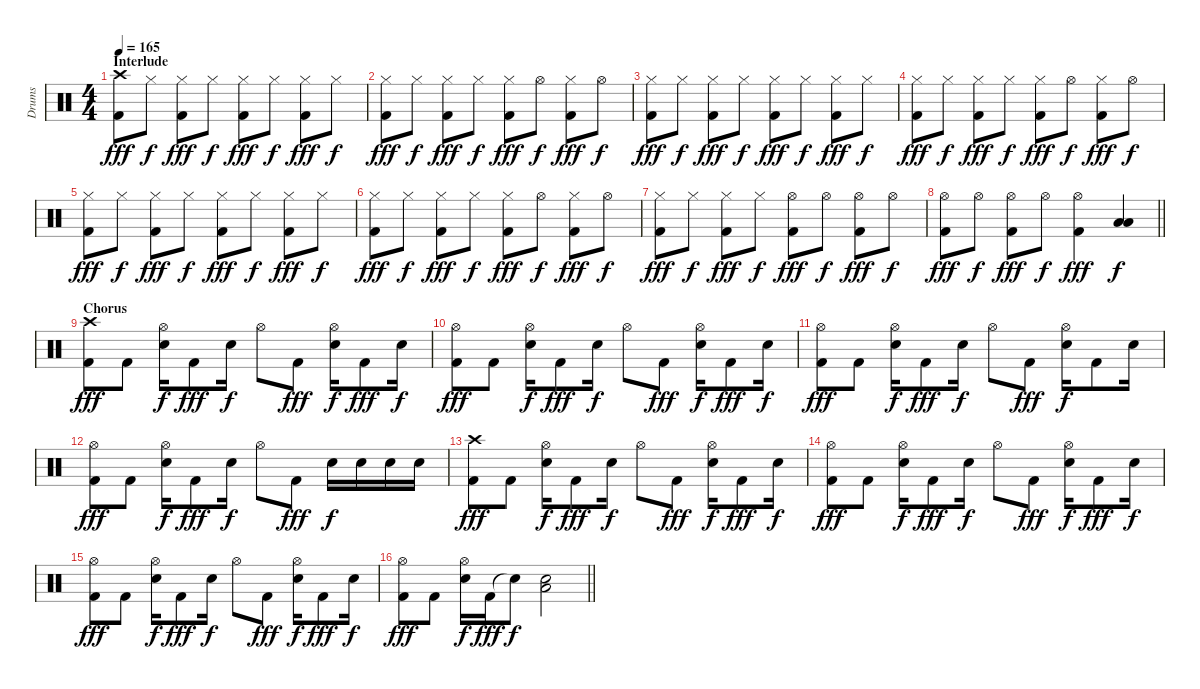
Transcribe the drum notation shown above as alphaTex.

\track ("Drums" "Drums") {instrument percussion}
\staff {score}
\articulation defaults
\ts (4 4)
\section ("" "Interlude")
\tempo 165
\clef neutral
\ks c
("Crash high (hit)" "Kick (hit) 2").8{dy fff} "Hi-Hat (closed)".8{dy f} ("Hi-Hat (closed)" "Kick (hit) 2").8{dy fff} "Hi-Hat (closed)".8{dy f} ("Hi-Hat (closed)" "Kick (hit) 2").8{dy fff} "Hi-Hat (closed)".8{dy f} ("Hi-Hat (closed)" "Kick (hit) 2").8{dy fff} "Hi-Hat (closed)".8{dy f} |
("Hi-Hat (closed)" "Kick (hit) 2").8{dy fff} "Hi-Hat (closed)".8{dy f} ("Hi-Hat (closed)" "Kick (hit) 2").8{dy fff} "Hi-Hat (closed)".8{dy f} ("Hi-Hat (closed)" "Kick (hit) 2").8{dy fff} "Hi-Hat (open)".8{dy f} ("Hi-Hat (closed)" "Kick (hit) 2").8{dy fff} "Hi-Hat (open)".8{dy f} |
("Hi-Hat (closed)" "Kick (hit) 2").8{dy fff} "Hi-Hat (closed)".8{dy f} ("Hi-Hat (closed)" "Kick (hit) 2").8{dy fff} "Hi-Hat (closed)".8{dy f} ("Hi-Hat (closed)" "Kick (hit) 2").8{dy fff} "Hi-Hat (closed)".8{dy f} ("Hi-Hat (closed)" "Kick (hit) 2").8{dy fff} "Hi-Hat (closed)".8{dy f} |
("Hi-Hat (closed)" "Kick (hit) 2").8{dy fff} "Hi-Hat (closed)".8{dy f} ("Hi-Hat (closed)" "Kick (hit) 2").8{dy fff} "Hi-Hat (closed)".8{dy f} ("Hi-Hat (closed)" "Kick (hit) 2").8{dy fff} "Hi-Hat (open)".8{dy f} ("Hi-Hat (closed)" "Kick (hit) 2").8{dy fff} "Hi-Hat (open)".8{dy f} |
("Hi-Hat (closed)" "Kick (hit) 2").8{dy fff} "Hi-Hat (closed)".8{dy f} ("Hi-Hat (closed)" "Kick (hit) 2").8{dy fff} "Hi-Hat (closed)".8{dy f} ("Hi-Hat (closed)" "Kick (hit) 2").8{dy fff} "Hi-Hat (closed)".8{dy f} ("Hi-Hat (closed)" "Kick (hit) 2").8{dy fff} "Hi-Hat (closed)".8{dy f} |
("Hi-Hat (closed)" "Kick (hit) 2").8{dy fff} "Hi-Hat (closed)".8{dy f} ("Hi-Hat (closed)" "Kick (hit) 2").8{dy fff} "Hi-Hat (closed)".8{dy f} ("Hi-Hat (closed)" "Kick (hit) 2").8{dy fff} "Hi-Hat (open)".8{dy f} ("Hi-Hat (closed)" "Kick (hit) 2").8{dy fff} "Hi-Hat (open)".8{dy f} |
("Hi-Hat (closed)" "Kick (hit) 2").8{dy fff} "Hi-Hat (closed)".8{dy f} ("Hi-Hat (closed)" "Kick (hit) 2").8{dy fff} "Hi-Hat (closed)".8{dy f} ("Hi-Hat (open)" "Kick (hit) 2").8{dy fff} "Hi-Hat (open)".8{dy f} ("Hi-Hat (open)" "Kick (hit) 2").8{dy fff} "Hi-Hat (open)".8{dy f} |
\barLineRight lightlight
("Hi-Hat (open)" "Kick (hit) 2").8{dy fff} "Hi-Hat (open)".8{dy f} ("Hi-Hat (open)" "Kick (hit) 2").8{dy fff} "Hi-Hat (open)".8{dy f} ("Hi-Hat (open)" "Kick (hit) 2").4{dy fff} ("Low Tom (hit)" "Low Floor Tom (hit)").4{dy f} |
\section ("" "Chorus")
("Crash high (hit)" "Kick (hit) 2").8{dy fff} "Kick (hit) 2".8 ("Hi-Hat (open)" "Snare (hit) 2").16{dy f} "Kick (hit) 2".8{dy fff} "Snare (hit) 2".16{dy f} "Hi-Hat (open)".8 "Kick (hit) 2".8{dy fff} ("Hi-Hat (open)" "Snare (hit) 2").16{dy f} "Kick (hit) 2".8{dy fff} "Snare (hit) 2".16{dy f} |
("Hi-Hat (open)" "Kick (hit) 2").8{dy fff} "Kick (hit) 2".8 ("Hi-Hat (open)" "Snare (hit) 2").16{dy f} "Kick (hit) 2".8{dy fff} "Snare (hit) 2".16{dy f} "Hi-Hat (open)".8 "Kick (hit) 2".8{dy fff} ("Hi-Hat (open)" "Snare (hit) 2").16{dy f} "Kick (hit) 2".8{dy fff} "Snare (hit) 2".16{dy f} |
("Hi-Hat (open)" "Kick (hit) 2").8{dy fff} "Kick (hit) 2".8 ("Hi-Hat (open)" "Snare (hit) 2").16{dy f} "Kick (hit) 2".8{dy fff} "Snare (hit) 2".16{dy f} "Hi-Hat (open)".8 "Kick (hit) 2".8{dy fff} ("Hi-Hat (open)" "Snare (hit) 2").16{dy f} "Kick (hit) 2".8 "Snare (hit) 2".16 |
("Hi-Hat (open)" "Kick (hit) 2").8{dy fff} "Kick (hit) 2".8 ("Hi-Hat (open)" "Snare (hit) 2").16{dy f} "Kick (hit) 2".8{dy fff} "Snare (hit) 2".16{dy f} "Hi-Hat (open)".8 "Kick (hit) 2".8{dy fff} "Snare (hit) 2".16{dy f} "Snare (hit) 2".16 "Snare (hit) 2".16 "Snare (hit) 2".16 |
("Crash high (hit)" "Kick (hit) 2").8{dy fff} "Kick (hit) 2".8 ("Hi-Hat (open)" "Snare (hit) 2").16{dy f} "Kick (hit) 2".8{dy fff} "Snare (hit) 2".16{dy f} "Hi-Hat (open)".8 "Kick (hit) 2".8{dy fff} ("Hi-Hat (open)" "Snare (hit) 2").16{dy f} "Kick (hit) 2".8{dy fff} "Snare (hit) 2".16{dy f} |
("Hi-Hat (open)" "Kick (hit) 2").8{dy fff} "Kick (hit) 2".8 ("Hi-Hat (open)" "Snare (hit) 2").16{dy f} "Kick (hit) 2".8{dy fff} "Snare (hit) 2".16{dy f} "Hi-Hat (open)".8 "Kick (hit) 2".8{dy fff} ("Hi-Hat (open)" "Snare (hit) 2").16{dy f} "Kick (hit) 2".8{dy fff} "Snare (hit) 2".16{dy f} |
("Hi-Hat (open)" "Kick (hit) 2").8{dy fff} "Kick (hit) 2".8 ("Hi-Hat (open)" "Snare (hit) 2").16{dy f} "Kick (hit) 2".8{dy fff} "Snare (hit) 2".16{dy f} "Hi-Hat (open)".8 "Kick (hit) 2".8{dy fff} ("Hi-Hat (open)" "Snare (hit) 2").16{dy f} "Kick (hit) 2".8{dy fff} "Snare (hit) 2".16{dy f} |
\barLineRight lightlight
("Hi-Hat (open)" "Kick (hit) 2").8{dy fff} "Kick (hit) 2".8 ("Hi-Hat (open)" "Snare (hit) 2").16{dy f} "Kick (hit) 2".16{dy fff} "Snare (hit)"{t}.8{dy f} ("Low Floor Tom (hit)" "Snare (hit) 2").2
